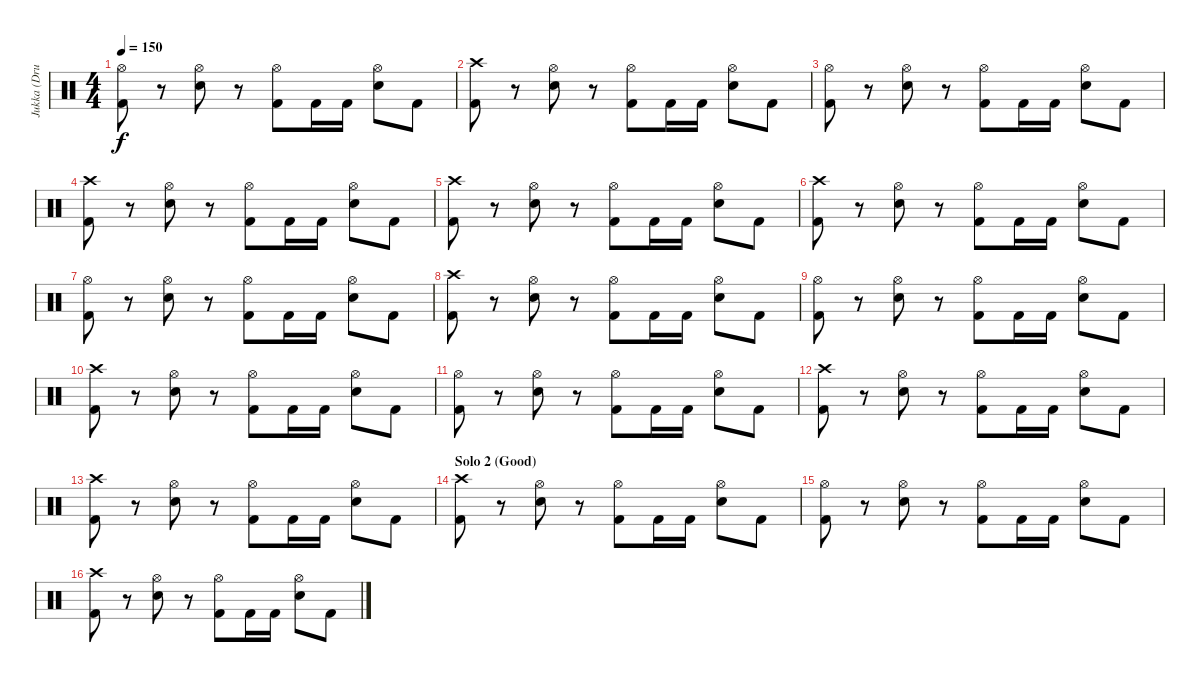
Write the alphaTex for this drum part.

\track ("Jukka (Drums)" "Jukka (Dru") {instrument percussion}
\staff {score}
\articulation defaults
\ts (4 4)
\tempo 150
\clef neutral
\ks c
("Kick (hit) 2" "Hi-Hat (open)").8{dy f} r.8 ("Hi-Hat (open)" "Electric Snare (hit)").8 r.8 ("Kick (hit) 2" "Hi-Hat (open)").8 "Kick (hit) 2".16 "Kick (hit) 2".16 ("Hi-Hat (open)" "Electric Snare (hit)").8 "Kick (hit) 2".8 |
("Kick (hit) 2" "Crash high (hit)").8 r.8 ("Hi-Hat (open)" "Electric Snare (hit)").8 r.8 ("Kick (hit) 2" "Hi-Hat (open)").8 "Kick (hit) 2".16 "Kick (hit) 2".16 ("Hi-Hat (open)" "Electric Snare (hit)").8 "Kick (hit) 2".8 |
("Kick (hit) 2" "Hi-Hat (open)").8 r.8 ("Hi-Hat (open)" "Electric Snare (hit)").8 r.8 ("Kick (hit) 2" "Hi-Hat (open)").8 "Kick (hit) 2".16 "Kick (hit) 2".16 ("Hi-Hat (open)" "Electric Snare (hit)").8 "Kick (hit) 2".8 |
("Kick (hit) 2" "Crash high (hit)").8 r.8 ("Hi-Hat (open)" "Electric Snare (hit)").8 r.8 ("Kick (hit) 2" "Hi-Hat (open)").8 "Kick (hit) 2".16 "Kick (hit) 2".16 ("Hi-Hat (open)" "Electric Snare (hit)").8 "Kick (hit) 2".8 |
("Kick (hit) 2" "Crash high (hit)").8 r.8 ("Hi-Hat (open)" "Electric Snare (hit)").8 r.8 ("Kick (hit) 2" "Hi-Hat (open)").8 "Kick (hit) 2".16 "Kick (hit) 2".16 ("Hi-Hat (open)" "Electric Snare (hit)").8 "Kick (hit) 2".8 |
("Kick (hit) 2" "Crash high (hit)").8 r.8 ("Hi-Hat (open)" "Electric Snare (hit)").8 r.8 ("Kick (hit) 2" "Hi-Hat (open)").8 "Kick (hit) 2".16 "Kick (hit) 2".16 ("Hi-Hat (open)" "Electric Snare (hit)").8 "Kick (hit) 2".8 |
("Kick (hit) 2" "Hi-Hat (open)").8 r.8 ("Hi-Hat (open)" "Electric Snare (hit)").8 r.8 ("Kick (hit) 2" "Hi-Hat (open)").8 "Kick (hit) 2".16 "Kick (hit) 2".16 ("Hi-Hat (open)" "Electric Snare (hit)").8 "Kick (hit) 2".8 |
("Kick (hit) 2" "Crash high (hit)").8 r.8 ("Hi-Hat (open)" "Electric Snare (hit)").8 r.8 ("Kick (hit) 2" "Hi-Hat (open)").8 "Kick (hit) 2".16 "Kick (hit) 2".16 ("Hi-Hat (open)" "Electric Snare (hit)").8 "Kick (hit) 2".8 |
("Kick (hit) 2" "Hi-Hat (open)").8 r.8 ("Hi-Hat (open)" "Electric Snare (hit)").8 r.8 ("Kick (hit) 2" "Hi-Hat (open)").8 "Kick (hit) 2".16 "Kick (hit) 2".16 ("Hi-Hat (open)" "Electric Snare (hit)").8 "Kick (hit) 2".8 |
("Kick (hit) 2" "Crash high (hit)").8 r.8 ("Hi-Hat (open)" "Electric Snare (hit)").8 r.8 ("Kick (hit) 2" "Hi-Hat (open)").8 "Kick (hit) 2".16 "Kick (hit) 2".16 ("Hi-Hat (open)" "Electric Snare (hit)").8 "Kick (hit) 2".8 |
("Kick (hit) 2" "Hi-Hat (open)").8 r.8 ("Hi-Hat (open)" "Electric Snare (hit)").8 r.8 ("Kick (hit) 2" "Hi-Hat (open)").8 "Kick (hit) 2".16 "Kick (hit) 2".16 ("Hi-Hat (open)" "Electric Snare (hit)").8 "Kick (hit) 2".8 |
("Kick (hit) 2" "Crash high (hit)").8 r.8 ("Hi-Hat (open)" "Electric Snare (hit)").8 r.8 ("Kick (hit) 2" "Hi-Hat (open)").8 "Kick (hit) 2".16 "Kick (hit) 2".16 ("Hi-Hat (open)" "Electric Snare (hit)").8 "Kick (hit) 2".8 |
("Kick (hit) 2" "Crash high (hit)").8 r.8 ("Hi-Hat (open)" "Electric Snare (hit)").8 r.8 ("Kick (hit) 2" "Hi-Hat (open)").8 "Kick (hit) 2".16 "Kick (hit) 2".16 ("Hi-Hat (open)" "Electric Snare (hit)").8 "Kick (hit) 2".8 |
\section ("" "Solo 2 (Good)")
("Kick (hit) 2" "Crash high (hit)").8 r.8 ("Hi-Hat (open)" "Electric Snare (hit)").8 r.8 ("Kick (hit) 2" "Hi-Hat (open)").8 "Kick (hit) 2".16 "Kick (hit) 2".16 ("Hi-Hat (open)" "Electric Snare (hit)").8 "Kick (hit) 2".8 |
("Kick (hit) 2" "Hi-Hat (open)").8 r.8 ("Hi-Hat (open)" "Electric Snare (hit)").8 r.8 ("Kick (hit) 2" "Hi-Hat (open)").8 "Kick (hit) 2".16 "Kick (hit) 2".16 ("Hi-Hat (open)" "Electric Snare (hit)").8 "Kick (hit) 2".8 |
("Kick (hit) 2" "Crash high (hit)").8 r.8 ("Hi-Hat (open)" "Electric Snare (hit)").8 r.8 ("Kick (hit) 2" "Hi-Hat (open)").8 "Kick (hit) 2".16 "Kick (hit) 2".16 ("Hi-Hat (open)" "Electric Snare (hit)").8 "Kick (hit) 2".8
